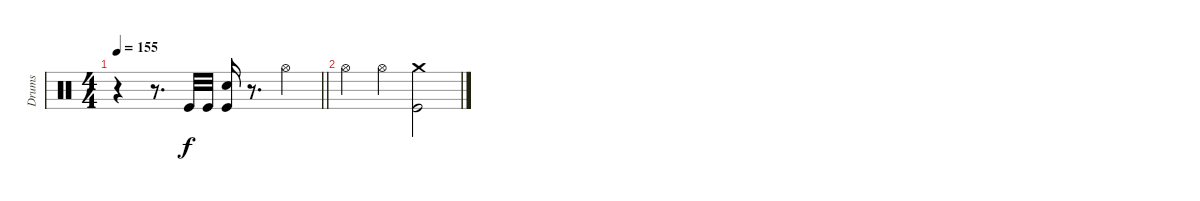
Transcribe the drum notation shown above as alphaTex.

\track ("Drums" "Drums") {instrument percussion}
\staff {score}
\articulation defaults
\ts (4 4)
\tempo 155
\clef neutral
\barLineRight lightlight
\ks c
r.4{dy f} r.8{d} "Kick (hit)".32 "Kick (hit)".32 ("Snare (hit) 2" "Kick (hit)").16 r.8{d} "Hi-Hat (open)".4 |
"Hi-Hat (open)".4 "Hi-Hat (open)".4 ("Crash medium (hit)" "Kick (hit)").2
